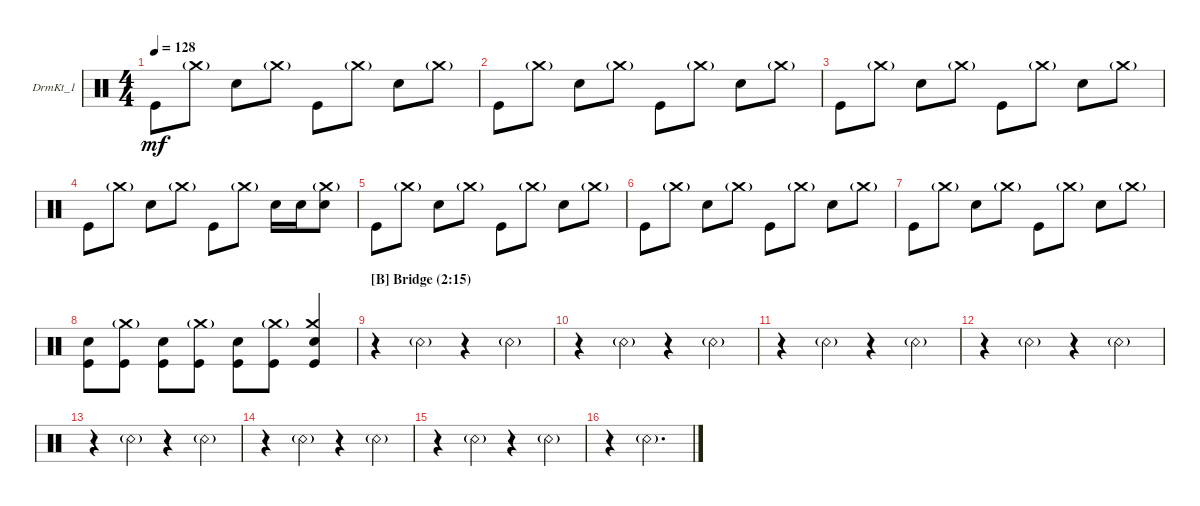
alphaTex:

\defaultSystemsLayout 4
\bracketExtendMode groupsimilarinstruments
\firstSystemTrackNameOrientation horizontal
\otherSystemsTrackNameOrientation horizontal
\track ("DrmKt_1" "DrmKt_1") {instrument percussion}
\staff {score}
\articulation defaults
\ts (4 4)
\tempo 128
\clef neutral
\ks c "Kick (hit)".8{dy mf} "Crash medium (hit)"{g}.8 "Snare (hit) 2".8 "Crash medium (hit)"{g}.8 "Kick (hit)".8 "Crash medium (hit)"{g}.8 "Snare (hit) 2".8 "Crash medium (hit)"{g}.8
|
"Kick (hit)".8 "Crash medium (hit)"{g}.8 "Snare (hit) 2".8 "Crash medium (hit)"{g}.8 "Kick (hit)".8 "Crash medium (hit)"{g}.8 "Snare (hit) 2".8 "Crash medium (hit)"{g}.8 |
"Kick (hit)".8 "Crash medium (hit)"{g}.8 "Snare (hit) 2".8 "Crash medium (hit)"{g}.8 "Kick (hit)".8 "Crash medium (hit)"{g}.8 "Snare (hit) 2".8 "Crash medium (hit)"{g}.8 |
"Kick (hit)".8 "Crash medium (hit)"{g}.8 "Snare (hit) 2".8 "Crash medium (hit)"{g}.8 "Kick (hit)".8 "Crash medium (hit)"{g}.8 "Snare (hit) 2".16 "Snare (hit) 2".16 ("Snare (hit) 2" "Crash medium (hit)"{g}).8 |
"Kick (hit)".8 "Crash medium (hit)"{g}.8 "Snare (hit) 2".8 "Crash medium (hit)"{g}.8 "Kick (hit)".8 "Crash medium (hit)"{g}.8 "Snare (hit) 2".8 "Crash medium (hit)"{g}.8 |
"Kick (hit)".8 "Crash medium (hit)"{g}.8 "Snare (hit) 2".8 "Crash medium (hit)"{g}.8 "Kick (hit)".8 "Crash medium (hit)"{g}.8 "Snare (hit) 2".8 "Crash medium (hit)"{g}.8 |
"Kick (hit)".8 "Crash medium (hit)"{g}.8 "Snare (hit) 2".8 "Crash medium (hit)"{g}.8 "Kick (hit)".8 "Crash medium (hit)"{g}.8 "Snare (hit) 2".8 "Crash medium (hit)"{g}.8 |
("Kick (hit)" "Snare (hit) 2").8 ("Kick (hit)" "Crash medium (hit)"{g}).8 ("Kick (hit)" "Snare (hit) 2").8 ("Kick (hit)" "Crash medium (hit)"{g}).8 ("Kick (hit)" "Snare (hit) 2").8 ("Kick (hit)" "Crash medium (hit)"{g}).8 ("Kick (hit)" "Crash medium (hit)" "Snare (hit) 2").4 |
\section ("B" "Bridge (2:15)")
r.4 "Snare (rim shot)"{g}.4 r.4 "Snare (rim shot)"{g}.4 |
r.4 "Snare (rim shot)"{g}.4 r.4 "Snare (rim shot)"{g}.4 |
r.4 "Snare (rim shot)"{g}.4 r.4 "Snare (rim shot)"{g}.4 |
r.4 "Snare (rim shot)"{g}.4 r.4 "Snare (rim shot)"{g}.4 |
r.4 "Snare (rim shot)"{g}.4 r.4 "Snare (rim shot)"{g}.4 |
r.4 "Snare (rim shot)"{g}.4 r.4 "Snare (rim shot)"{g}.4 |
r.4 "Snare (rim shot)"{g}.4 r.4 "Snare (rim shot)"{g}.4 |
r.4 "Snare (rim shot)"{g}.2{d}
